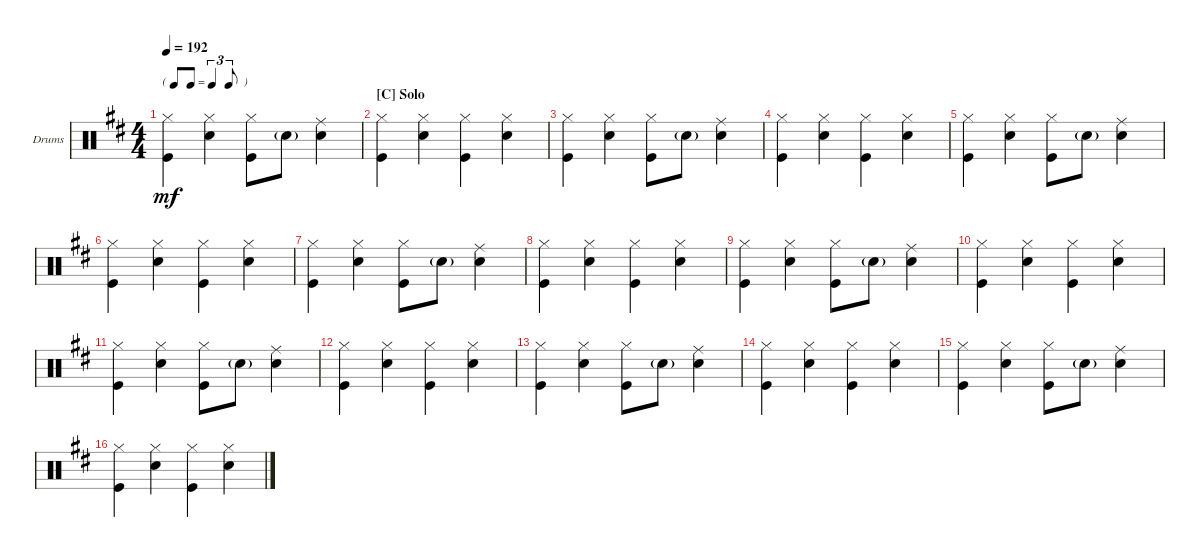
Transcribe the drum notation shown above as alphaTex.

\defaultSystemsLayout 4
\bracketExtendMode groupsimilarinstruments
\firstSystemTrackNameOrientation horizontal
\otherSystemsTrackNameOrientation horizontal
\track ("Drumkit" "Drums") {instrument percussion}
\staff {score}
\articulation defaults
\ts (4 4)
\tf triplet8th
\tempo 192
\clef neutral
\ks d
("Kick (hit)" "Hi-Hat (closed)").4{dy mf} ("Snare (hit) 2" "Hi-Hat (closed)").4 ("Kick (hit)" "Hi-Hat (closed)").8 "Snare (hit) 2"{g}.8 ("Snare (hit) 2" "Ride (middle)").4 |
\section ("C" "Solo")
("Kick (hit)" "Hi-Hat (closed)").4 ("Snare (hit) 2" "Hi-Hat (closed)").4 ("Kick (hit)" "Hi-Hat (closed)").4 ("Snare (hit) 2" "Hi-Hat (closed)").4 |
("Kick (hit)" "Hi-Hat (closed)").4 ("Snare (hit) 2" "Hi-Hat (closed)").4 ("Kick (hit)" "Hi-Hat (closed)").8 "Snare (hit) 2"{g}.8 ("Snare (hit) 2" "Ride (middle)").4 |
("Kick (hit)" "Hi-Hat (closed)").4 ("Snare (hit) 2" "Hi-Hat (closed)").4 ("Kick (hit)" "Hi-Hat (closed)").4 ("Snare (hit) 2" "Hi-Hat (closed)").4 |
("Kick (hit)" "Hi-Hat (closed)").4 ("Snare (hit) 2" "Hi-Hat (closed)").4 ("Kick (hit)" "Hi-Hat (closed)").8 "Snare (hit) 2"{g}.8 ("Snare (hit) 2" "Ride (middle)").4 |
("Kick (hit)" "Hi-Hat (closed)").4 ("Snare (hit) 2" "Hi-Hat (closed)").4 ("Kick (hit)" "Hi-Hat (closed)").4 ("Snare (hit) 2" "Hi-Hat (closed)").4 |
("Kick (hit)" "Hi-Hat (closed)").4 ("Snare (hit) 2" "Hi-Hat (closed)").4 ("Kick (hit)" "Hi-Hat (closed)").8 "Snare (hit) 2"{g}.8 ("Snare (hit) 2" "Ride (middle)").4 |
("Kick (hit)" "Hi-Hat (closed)").4 ("Snare (hit) 2" "Hi-Hat (closed)").4 ("Kick (hit)" "Hi-Hat (closed)").4 ("Snare (hit) 2" "Hi-Hat (closed)").4 |
("Kick (hit)" "Hi-Hat (closed)").4 ("Snare (hit) 2" "Hi-Hat (closed)").4 ("Kick (hit)" "Hi-Hat (closed)").8 "Snare (hit) 2"{g}.8 ("Snare (hit) 2" "Ride (middle)").4 |
("Kick (hit)" "Hi-Hat (closed)").4 ("Snare (hit) 2" "Hi-Hat (closed)").4 ("Kick (hit)" "Hi-Hat (closed)").4 ("Snare (hit) 2" "Hi-Hat (closed)").4 |
("Kick (hit)" "Hi-Hat (closed)").4 ("Snare (hit) 2" "Hi-Hat (closed)").4 ("Kick (hit)" "Hi-Hat (closed)").8 "Snare (hit) 2"{g}.8 ("Snare (hit) 2" "Ride (middle)").4 |
("Kick (hit)" "Hi-Hat (closed)").4 ("Snare (hit) 2" "Hi-Hat (closed)").4 ("Kick (hit)" "Hi-Hat (closed)").4 ("Snare (hit) 2" "Hi-Hat (closed)").4 |
("Kick (hit)" "Hi-Hat (closed)").4 ("Snare (hit) 2" "Hi-Hat (closed)").4 ("Kick (hit)" "Hi-Hat (closed)").8 "Snare (hit) 2"{g}.8 ("Snare (hit) 2" "Ride (middle)").4 |
("Kick (hit)" "Hi-Hat (closed)").4 ("Snare (hit) 2" "Hi-Hat (closed)").4 ("Kick (hit)" "Hi-Hat (closed)").4 ("Snare (hit) 2" "Hi-Hat (closed)").4 |
("Kick (hit)" "Hi-Hat (closed)").4 ("Snare (hit) 2" "Hi-Hat (closed)").4 ("Kick (hit)" "Hi-Hat (closed)").8 "Snare (hit) 2"{g}.8 ("Snare (hit) 2" "Ride (middle)").4 |
("Kick (hit)" "Hi-Hat (closed)").4 ("Snare (hit) 2" "Hi-Hat (closed)").4 ("Kick (hit)" "Hi-Hat (closed)").4 ("Snare (hit) 2" "Hi-Hat (closed)").4
